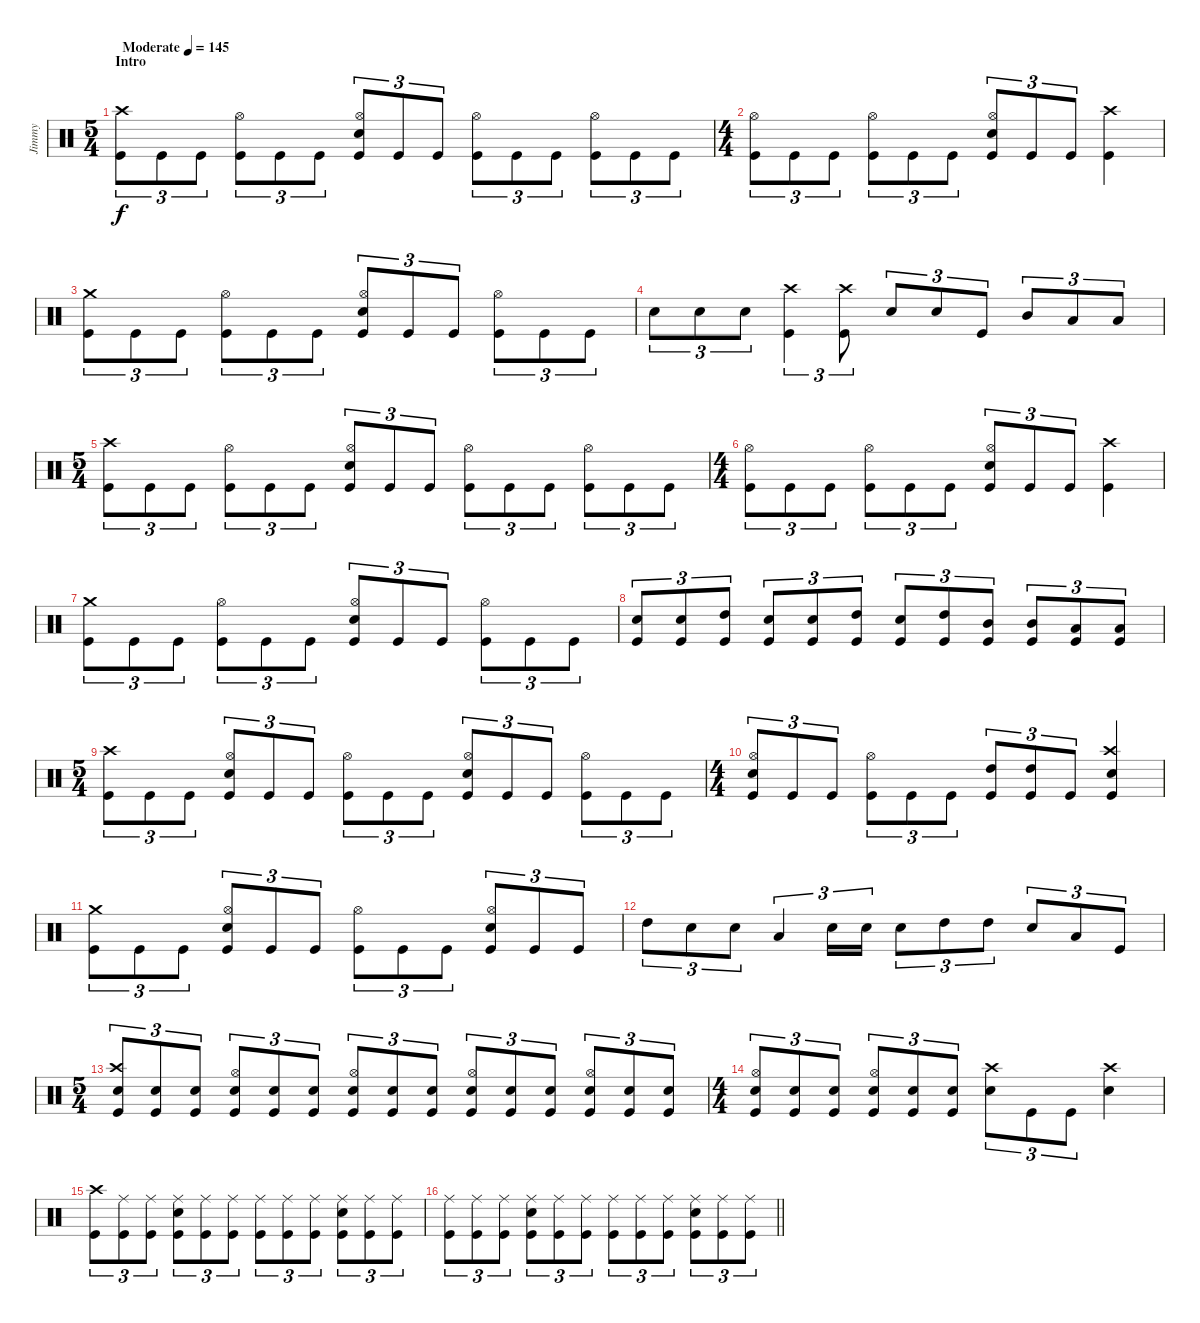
\track ("Jimmy" "Jimmy") {instrument percussion}
\staff {score}
\articulation defaults
\ts (5 4)
\section ("" "Intro")
\tempo (145 "Moderate")
\clef neutral
\ks c
("Kick (hit)" "Crash high (hit)").8{tu (3 2) dy f} "Kick (hit)".8{tu (3 2)} "Kick (hit)".8{tu (3 2)} ("Kick (hit)" "Hi-Hat (open)").8{tu (3 2)} "Kick (hit)".8{tu (3 2)} "Kick (hit)".8{tu (3 2)} ("Kick (hit)" "Hi-Hat (open)" "Snare (hit) 2").8{tu (3 2)} "Kick (hit)".8{tu (3 2)} "Kick (hit)".8{tu (3 2)} ("Kick (hit)" "Hi-Hat (open)").8{tu (3 2)} "Kick (hit)".8{tu (3 2)} "Kick (hit)".8{tu (3 2)} ("Kick (hit)" "Hi-Hat (open)").8{tu (3 2)} "Kick (hit)".8{tu (3 2)} "Kick (hit)".8{tu (3 2)} |
\ts (4 4)
("Hi-Hat (open)" "Kick (hit)").8{tu (3 2)} "Kick (hit)".8{tu (3 2)} "Kick (hit)".8{tu (3 2)} ("Kick (hit)" "Hi-Hat (open)").8{tu (3 2)} "Kick (hit)".8{tu (3 2)} "Kick (hit)".8{tu (3 2)} ("Kick (hit)" "Hi-Hat (open)" "Snare (hit) 2").8{tu (3 2)} "Kick (hit)".8{tu (3 2)} "Kick (hit)".8{tu (3 2)} ("Kick (hit)" "Crash high (hit)").4 |
("Crash medium (hit)" "Kick (hit)").8{tu (3 2)} "Kick (hit)".8{tu (3 2)} "Kick (hit)".8{tu (3 2)} ("Kick (hit)" "Hi-Hat (open)").8{tu (3 2)} "Kick (hit)".8{tu (3 2)} "Kick (hit)".8{tu (3 2)} ("Kick (hit)" "Hi-Hat (open)" "Snare (hit) 2").8{tu (3 2)} "Kick (hit)".8{tu (3 2)} "Kick (hit)".8{tu (3 2)} ("Kick (hit)" "Hi-Hat (open)").8{tu (3 2)} "Kick (hit)".8{tu (3 2)} "Kick (hit)".8{tu (3 2)} |
"Snare (hit) 2".8{tu (3 2)} "Snare (hit) 2".8{tu (3 2)} "Snare (hit) 2".8{tu (3 2)} ("Kick (hit)" "Crash high (hit)").4{tu (3 2)} ("Crash high (hit)" "Kick (hit)").8{tu (3 2)} "Snare (hit) 2".8{tu (3 2)} "Snare (hit) 2".8{tu (3 2)} "Kick (hit)".8{tu (3 2)} "Mid Tom (hit)".8{tu (3 2)} "Low Tom (hit)".8{tu (3 2)} "Low Tom (hit)".8{tu (3 2)} |
\ts (5 4)
("Kick (hit)" "Crash high (hit)").8{tu (3 2)} "Kick (hit)".8{tu (3 2)} "Kick (hit)".8{tu (3 2)} ("Kick (hit)" "Hi-Hat (open)").8{tu (3 2)} "Kick (hit)".8{tu (3 2)} "Kick (hit)".8{tu (3 2)} ("Kick (hit)" "Hi-Hat (open)" "Snare (hit) 2").8{tu (3 2)} "Kick (hit)".8{tu (3 2)} "Kick (hit)".8{tu (3 2)} ("Kick (hit)" "Hi-Hat (open)").8{tu (3 2)} "Kick (hit)".8{tu (3 2)} "Kick (hit)".8{tu (3 2)} ("Kick (hit)" "Hi-Hat (open)").8{tu (3 2)} "Kick (hit)".8{tu (3 2)} "Kick (hit)".8{tu (3 2)} |
\ts (4 4)
("Hi-Hat (open)" "Kick (hit)").8{tu (3 2)} "Kick (hit)".8{tu (3 2)} "Kick (hit)".8{tu (3 2)} ("Kick (hit)" "Hi-Hat (open)").8{tu (3 2)} "Kick (hit)".8{tu (3 2)} "Kick (hit)".8{tu (3 2)} ("Kick (hit)" "Hi-Hat (open)" "Snare (hit) 2").8{tu (3 2)} "Kick (hit)".8{tu (3 2)} "Kick (hit)".8{tu (3 2)} ("Kick (hit)" "Crash high (hit)").4 |
("Crash medium (hit)" "Kick (hit)").8{tu (3 2)} "Kick (hit)".8{tu (3 2)} "Kick (hit)".8{tu (3 2)} ("Kick (hit)" "Hi-Hat (open)").8{tu (3 2)} "Kick (hit)".8{tu (3 2)} "Kick (hit)".8{tu (3 2)} ("Kick (hit)" "Hi-Hat (open)" "Snare (hit) 2").8{tu (3 2)} "Kick (hit)".8{tu (3 2)} "Kick (hit)".8{tu (3 2)} ("Kick (hit)" "Hi-Hat (open)").8{tu (3 2)} "Kick (hit)".8{tu (3 2)} "Kick (hit)".8{tu (3 2)} |
("Snare (hit) 2" "Kick (hit)").8{tu (3 2)} ("Snare (hit) 2" "Kick (hit)").8{tu (3 2)} ("High Tom (hit)" "Kick (hit)").8{tu (3 2)} ("Snare (hit) 2" "Kick (hit)").8{tu (3 2)} ("Snare (hit) 2" "Kick (hit)").8{tu (3 2)} ("High Tom (hit)" "Kick (hit)").8{tu (3 2)} ("Snare (hit) 2" "Kick (hit)").8{tu (3 2)} ("High Tom (hit)" "Kick (hit)").8{tu (3 2)} ("Mid Tom (hit)" "Kick (hit)").8{tu (3 2)} ("Mid Tom (hit)" "Kick (hit)").8{tu (3 2)} ("Low Tom (hit)" "Kick (hit)").8{tu (3 2)} ("Low Tom (hit)" "Kick (hit)").8{tu (3 2)} |
\ts (5 4)
("Kick (hit)" "Crash high (hit)").8{tu (3 2)} "Kick (hit)".8{tu (3 2)} "Kick (hit)".8{tu (3 2)} ("Kick (hit)" "Snare (hit) 2" "Hi-Hat (open)").8{tu (3 2)} "Kick (hit)".8{tu (3 2)} "Kick (hit)".8{tu (3 2)} ("Kick (hit)" "Hi-Hat (open)").8{tu (3 2)} "Kick (hit)".8{tu (3 2)} "Kick (hit)".8{tu (3 2)} ("Kick (hit)" "Snare (hit) 2" "Hi-Hat (open)").8{tu (3 2)} "Kick (hit)".8{tu (3 2)} "Kick (hit)".8{tu (3 2)} ("Kick (hit)" "Hi-Hat (open)").8{tu (3 2)} "Kick (hit)".8{tu (3 2)} "Kick (hit)".8{tu (3 2)} |
\ts (4 4)
("Hi-Hat (open)" "Kick (hit)" "Snare (hit) 2").8{tu (3 2)} "Kick (hit)".8{tu (3 2)} "Kick (hit)".8{tu (3 2)} ("Kick (hit)" "Hi-Hat (open)").8{tu (3 2)} "Kick (hit)".8{tu (3 2)} "Kick (hit)".8{tu (3 2)} ("Kick (hit)" "High Tom (hit)").8{tu (3 2)} ("Kick (hit)" "High Tom (hit)").8{tu (3 2)} "Kick (hit)".8{tu (3 2)} ("Kick (hit)" "Snare (hit) 2" "Crash high (hit)").4 |
("Crash medium (hit)" "Kick (hit)").8{tu (3 2)} "Kick (hit)".8{tu (3 2)} "Kick (hit)".8{tu (3 2)} ("Kick (hit)" "Snare (hit) 2" "Hi-Hat (open)").8{tu (3 2)} "Kick (hit)".8{tu (3 2)} "Kick (hit)".8{tu (3 2)} ("Kick (hit)" "Hi-Hat (open)").8{tu (3 2)} "Kick (hit)".8{tu (3 2)} "Kick (hit)".8{tu (3 2)} ("Kick (hit)" "Snare (hit) 2" "Hi-Hat (open)").8{tu (3 2)} "Kick (hit)".8{tu (3 2)} "Kick (hit)".8{tu (3 2)} |
"High Tom (hit)".8{tu (3 2)} "Snare (hit) 2".8{tu (3 2)} "Snare (hit) 2".8{tu (3 2)} "Low Tom (hit)".4{tu (3 2)} "Snare (hit) 2".16{tu (3 2)} "Snare (hit) 2".16{tu (3 2)} "Snare (hit) 2".8{tu (3 2)} "High Tom (hit)".8{tu (3 2)} "High Tom (hit)".8{tu (3 2)} "Snare (hit) 2".8{tu (3 2)} "Low Tom (hit)".8{tu (3 2)} "Kick (hit)".8{tu (3 2)} |
\ts (5 4)
("Snare (hit) 2" "Kick (hit)" "Crash high (hit)").8{tu (3 2)} ("Snare (hit) 2" "Kick (hit)").8{tu (3 2)} ("Snare (hit) 2" "Kick (hit)").8{tu (3 2)} ("Snare (hit) 2" "Kick (hit)" "Hi-Hat (open)").8{tu (3 2)} ("Snare (hit) 2" "Kick (hit)").8{tu (3 2)} ("Snare (hit) 2" "Kick (hit)").8{tu (3 2)} ("Snare (hit) 2" "Kick (hit)" "Hi-Hat (open)").8{tu (3 2)} ("Snare (hit) 2" "Kick (hit)").8{tu (3 2)} ("Snare (hit) 2" "Kick (hit)").8{tu (3 2)} ("Hi-Hat (open)" "Kick (hit)" "Snare (hit) 2").8{tu (3 2)} ("Snare (hit) 2" "Kick (hit)").8{tu (3 2)} ("Snare (hit) 2" "Kick (hit)").8{tu (3 2)} ("Hi-Hat (open)" "Kick (hit)" "Snare (hit) 2").8{tu (3 2)} ("Snare (hit) 2" "Kick (hit)").8{tu (3 2)} ("Snare (hit) 2" "Kick (hit)").8{tu (3 2)} |
\ts (4 4)
("Snare (hit) 2" "Kick (hit)" "Hi-Hat (open)").8{tu (3 2)} ("Snare (hit) 2" "Kick (hit)").8{tu (3 2)} ("Snare (hit) 2" "Kick (hit)").8{tu (3 2)} ("Snare (hit) 2" "Kick (hit)" "Hi-Hat (open)").8{tu (3 2)} ("Snare (hit) 2" "Kick (hit)").8{tu (3 2)} ("Snare (hit) 2" "Kick (hit)").8{tu (3 2)} ("Crash high (hit)" "Snare (hit) 2").8{tu (3 2)} "Kick (hit)".8{tu (3 2)} "Kick (hit)".8{tu (3 2)} ("Crash high (hit)" "Snare (hit) 2").4 |
("Kick (hit)" "Crash high (hit)").8{tu (3 2)} ("Ride (middle)" "Kick (hit)").8{tu (3 2)} ("Kick (hit)" "Ride (middle)").8{tu (3 2)} ("Snare (hit) 2" "Ride (middle)" "Kick (hit)").8{tu (3 2)} ("Kick (hit)" "Ride (middle)").8{tu (3 2)} ("Kick (hit)" "Ride (middle)").8{tu (3 2)} ("Kick (hit)" "Ride (middle)").8{tu (3 2)} ("Kick (hit)" "Ride (middle)").8{tu (3 2)} ("Kick (hit)" "Ride (middle)").8{tu (3 2)} ("Snare (hit) 2" "Ride (middle)" "Kick (hit)").8{tu (3 2)} ("Kick (hit)" "Ride (middle)").8{tu (3 2)} ("Kick (hit)" "Ride (middle)").8{tu (3 2)} |
\barLineRight lightlight
("Kick (hit)" "Ride (middle)").8{tu (3 2)} ("Kick (hit)" "Ride (middle)").8{tu (3 2)} ("Kick (hit)" "Ride (middle)").8{tu (3 2)} ("Snare (hit) 2" "Ride (middle)" "Kick (hit)").8{tu (3 2)} ("Kick (hit)" "Ride (middle)").8{tu (3 2)} ("Kick (hit)" "Ride (middle)").8{tu (3 2)} ("Kick (hit)" "Ride (middle)").8{tu (3 2)} ("Kick (hit)" "Ride (middle)").8{tu (3 2)} ("Kick (hit)" "Ride (middle)").8{tu (3 2)} ("Snare (hit) 2" "Ride (middle)" "Kick (hit)").8{tu (3 2)} ("Kick (hit)" "Ride (middle)").8{tu (3 2)} ("Kick (hit)" "Ride (middle)").8{tu (3 2)}
